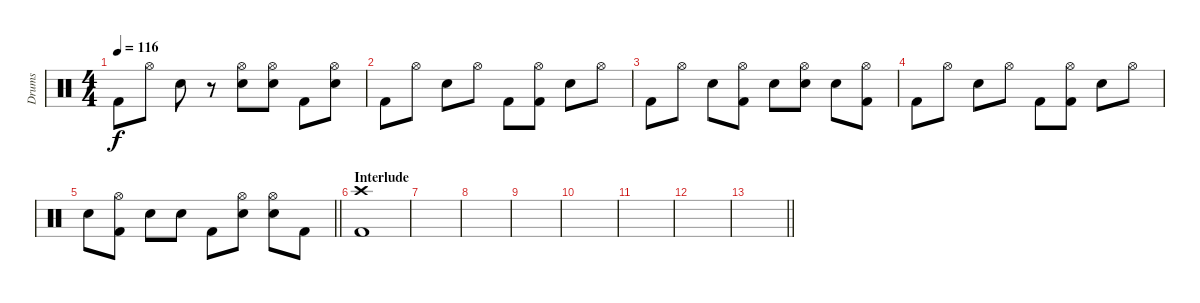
\track ("Drums" "Drums") {instrument percussion}
\staff {score}
\articulation defaults
\ts (4 4)
\tempo 116
\clef neutral
\ks c "Kick (hit) 2".8{dy f} "Hi-Hat (open)".8 "Electric Snare (hit)".8
r.8 ("Hi-Hat (open)" "Electric Snare (hit)").8 ("Hi-Hat (open)" "Electric Snare (hit)").8 "Kick (hit) 2".8 ("Hi-Hat (open)" "Electric Snare (hit)").8 |
"Kick (hit) 2".8 "Hi-Hat (open)".8 "Electric Snare (hit)".8 "Hi-Hat (open)".8 "Kick (hit) 2".8 ("Hi-Hat (open)" "Kick (hit) 2").8 "Electric Snare (hit)".8 "Hi-Hat (open)".8 |
"Kick (hit) 2".8 "Hi-Hat (open)".8 "Electric Snare (hit)".8 ("Hi-Hat (open)" "Kick (hit) 2").8 "Electric Snare (hit)".8 ("Hi-Hat (open)" "Electric Snare (hit)").8 "Electric Snare (hit)".8 ("Hi-Hat (open)" "Kick (hit) 2").8 |
"Kick (hit) 2".8 "Hi-Hat (open)".8 "Electric Snare (hit)".8 "Hi-Hat (open)".8 "Kick (hit) 2".8 ("Hi-Hat (open)" "Kick (hit) 2").8 "Electric Snare (hit)".8 "Hi-Hat (open)".8 |
\barLineRight lightlight "Electric Snare (hit)".8
("Hi-Hat (open)" "Kick (hit) 2").8 "Electric Snare (hit)".8 "Electric Snare (hit)".8 "Kick (hit) 2".8 ("Hi-Hat (open)" "Electric Snare (hit)").8 ("Hi-Hat (open)" "Electric Snare (hit)").8 "Kick (hit) 2".8 |
\section ("" "Interlude")
("Crash high (hit)" "Kick (hit) 2").1 |
|
|
|
|
|
|
\barLineRight lightlight
